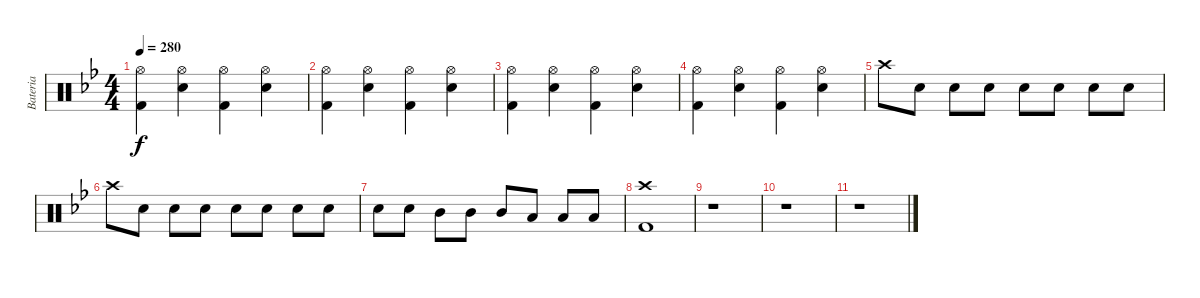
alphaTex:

\track ("Bateria" "Bateria") {instrument percussion}
\staff {score}
\articulation defaults
\ts (4 4)
\tempo 280
\clef neutral
\ks bb
("Hi-Hat (open)" "Kick (hit) 2").4{dy f} ("Hi-Hat (open)" "Electric Snare (hit)").4 ("Hi-Hat (open)" "Kick (hit) 2").4 ("Hi-Hat (open)" "Electric Snare (hit)").4 |
("Hi-Hat (open)" "Kick (hit) 2").4 ("Hi-Hat (open)" "Electric Snare (hit)").4 ("Hi-Hat (open)" "Kick (hit) 2").4 ("Hi-Hat (open)" "Electric Snare (hit)").4 |
("Hi-Hat (open)" "Kick (hit) 2").4 ("Hi-Hat (open)" "Electric Snare (hit)").4 ("Hi-Hat (open)" "Kick (hit) 2").4 ("Hi-Hat (open)" "Electric Snare (hit)").4 |
("Hi-Hat (open)" "Kick (hit) 2").4 ("Hi-Hat (open)" "Electric Snare (hit)").4 ("Hi-Hat (open)" "Kick (hit) 2").4 ("Hi-Hat (open)" "Electric Snare (hit)").4 |
"Crash high (hit)".8 "Electric Snare (hit)".8 "Electric Snare (hit)".8 "Electric Snare (hit)".8 "Electric Snare (hit)".8 "Electric Snare (hit)".8 "Electric Snare (hit)".8 "Electric Snare (hit)".8 |
"Crash high (hit)".8 "Electric Snare (hit)".8 "Electric Snare (hit)".8 "Electric Snare (hit)".8 "Electric Snare (hit)".8 "Electric Snare (hit)".8 "Electric Snare (hit)".8 "Electric Snare (hit)".8 |
"Electric Snare (hit)".8 "Electric Snare (hit)".8 "Mid Tom (hit)".8 "Mid Tom (hit)".8 "Mid Tom (hit)".8 "Low Tom (hit)".8 "Low Tom (hit)".8 "Low Tom (hit)".8 |
("Crash high (hit)" "Kick (hit) 2").1 |
r.1 |
r.1 |
r.1
